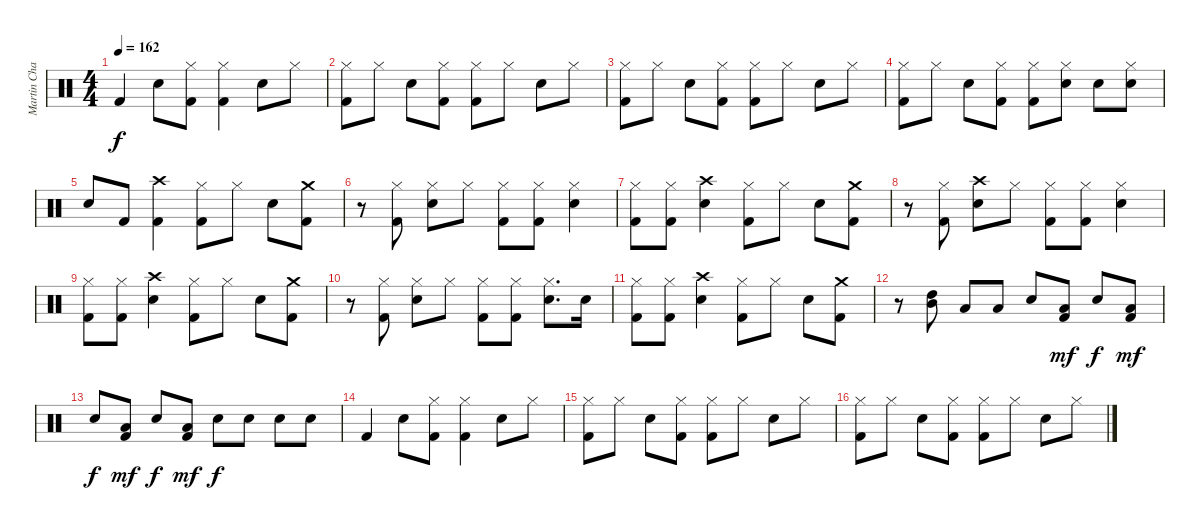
\track ("Martin Chambers" "Martin Cha") {instrument percussion}
\staff {score}
\articulation defaults
\ts (4 4)
\tempo 162
\clef neutral
\ks c "Kick (hit) 2".4{dy f} "Snare (hit) 2".8
("Hi-Hat (closed)" "Kick (hit) 2").8 ("Hi-Hat (closed)" "Kick (hit) 2").4 "Snare (hit) 2".8 "Hi-Hat (closed)".8 |
("Hi-Hat (closed)" "Kick (hit) 2").8 "Hi-Hat (closed)".8 "Snare (hit) 2".8 ("Hi-Hat (closed)" "Kick (hit) 2").8 ("Hi-Hat (closed)" "Kick (hit) 2").8 "Hi-Hat (closed)".8 "Snare (hit) 2".8 "Hi-Hat (closed)".8 |
("Hi-Hat (closed)" "Kick (hit) 2").8 "Hi-Hat (closed)".8 "Snare (hit) 2".8 ("Hi-Hat (closed)" "Kick (hit) 2").8 ("Hi-Hat (closed)" "Kick (hit) 2").8 "Hi-Hat (closed)".8 "Snare (hit) 2".8 "Hi-Hat (closed)".8 |
("Hi-Hat (closed)" "Kick (hit) 2").8 "Hi-Hat (closed)".8 "Snare (hit) 2".8 ("Hi-Hat (closed)" "Kick (hit) 2").8 ("Hi-Hat (closed)" "Kick (hit) 2").8 ("Hi-Hat (closed)" "Snare (hit) 2").8 "Snare (hit) 2".8 ("Hi-Hat (closed)" "Snare (hit) 2").8 |
"Snare (hit) 2".8 "Kick (hit) 2".8 ("Crash high (hit)" "Kick (hit) 2").4 ("Hi-Hat (closed)" "Kick (hit) 2").8 "Hi-Hat (closed)".8 "Snare (hit) 2".8 ("Crash medium (hit)" "Kick (hit) 2").8 |
r.8 ("Hi-Hat (closed)" "Kick (hit) 2").8 ("Hi-Hat (closed)" "Snare (hit) 2").8 "Hi-Hat (closed)".8 ("Hi-Hat (closed)" "Kick (hit) 2").8 ("Hi-Hat (closed)" "Kick (hit) 2").8 ("Hi-Hat (closed)" "Snare (hit) 2").4 |
("Hi-Hat (closed)" "Kick (hit) 2").8 ("Hi-Hat (closed)" "Kick (hit) 2").8 ("Crash high (hit)" "Snare (hit) 2").4 ("Hi-Hat (closed)" "Kick (hit) 2").8 "Hi-Hat (closed)".8 "Snare (hit) 2".8 ("Crash medium (hit)" "Kick (hit) 2").8 |
r.8 ("Hi-Hat (closed)" "Kick (hit) 2").8 ("Crash high (hit)" "Snare (hit) 2").8 "Hi-Hat (closed)".8 ("Hi-Hat (closed)" "Kick (hit) 2").8 ("Hi-Hat (closed)" "Kick (hit) 2").8 ("Hi-Hat (closed)" "Snare (hit) 2").4 |
("Hi-Hat (closed)" "Kick (hit) 2").8 ("Hi-Hat (closed)" "Kick (hit) 2").8 ("Crash high (hit)" "Snare (hit) 2").4 ("Hi-Hat (closed)" "Kick (hit) 2").8 "Hi-Hat (closed)".8 "Snare (hit) 2".8 ("Crash medium (hit)" "Kick (hit) 2").8 |
r.8 ("Hi-Hat (closed)" "Kick (hit) 2").8 ("Hi-Hat (closed)" "Snare (hit) 2").8 "Hi-Hat (closed)".8 ("Hi-Hat (closed)" "Kick (hit) 2").8 ("Hi-Hat (closed)" "Kick (hit) 2").8 ("Hi-Hat (closed)" "Snare (hit) 2").8{d} "Snare (hit) 2".16 |
("Hi-Hat (closed)" "Kick (hit) 2").8 ("Hi-Hat (closed)" "Kick (hit) 2").8 ("Crash high (hit)" "Snare (hit) 2").4 ("Hi-Hat (closed)" "Kick (hit) 2").8 "Hi-Hat (closed)".8 "Snare (hit) 2".8 ("Crash medium (hit)" "Kick (hit) 2").8 |
r.8 ("Mid Tom (hit)" "High Tom (hit)").8 "Low Tom (hit)".8 "Low Tom (hit)".8 "Snare (hit) 2".8 ("Low Tom (hit)" "Kick (hit) 2").8{dy mf} "Snare (hit) 2".8{dy f} ("Low Tom (hit)" "Kick (hit) 2").8{dy mf} |
"Snare (hit) 2".8{dy f} ("Low Tom (hit)" "Kick (hit) 2").8{dy mf} "Snare (hit) 2".8{dy f} ("Low Tom (hit)" "Kick (hit) 2").8{dy mf} "Snare (hit) 2".8{dy f} "Snare (hit) 2".8 "Snare (hit) 2".8 "Snare (hit) 2".8 |
"Kick (hit) 2".4 "Snare (hit) 2".8 ("Hi-Hat (closed)" "Kick (hit) 2").8 ("Hi-Hat (closed)" "Kick (hit) 2").4 "Snare (hit) 2".8 "Hi-Hat (closed)".8 |
("Hi-Hat (closed)" "Kick (hit) 2").8 "Hi-Hat (closed)".8 "Snare (hit) 2".8 ("Hi-Hat (closed)" "Kick (hit) 2").8 ("Hi-Hat (closed)" "Kick (hit) 2").8 "Hi-Hat (closed)".8 "Snare (hit) 2".8 "Hi-Hat (closed)".8 |
("Hi-Hat (closed)" "Kick (hit) 2").8 "Hi-Hat (closed)".8 "Snare (hit) 2".8 ("Hi-Hat (closed)" "Kick (hit) 2").8 ("Hi-Hat (closed)" "Kick (hit) 2").8 "Hi-Hat (closed)".8 "Snare (hit) 2".8 "Hi-Hat (closed)".8
